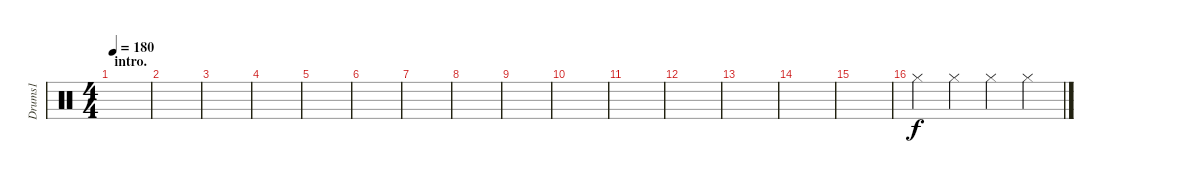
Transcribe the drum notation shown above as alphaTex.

\track ("Drums1" "Drums1") {instrument percussion}
\staff {score}
\articulation defaults
\ts (4 4)
\section ("" "intro.")
\tempo 180
\clef neutral
\ks c
|
|
|
|
|
|
|
|
|
|
|
|
|
|
|
"Hi-Hat (closed)".4 "Hi-Hat (closed)".4 "Hi-Hat (closed)".4 "Hi-Hat (closed)".4
